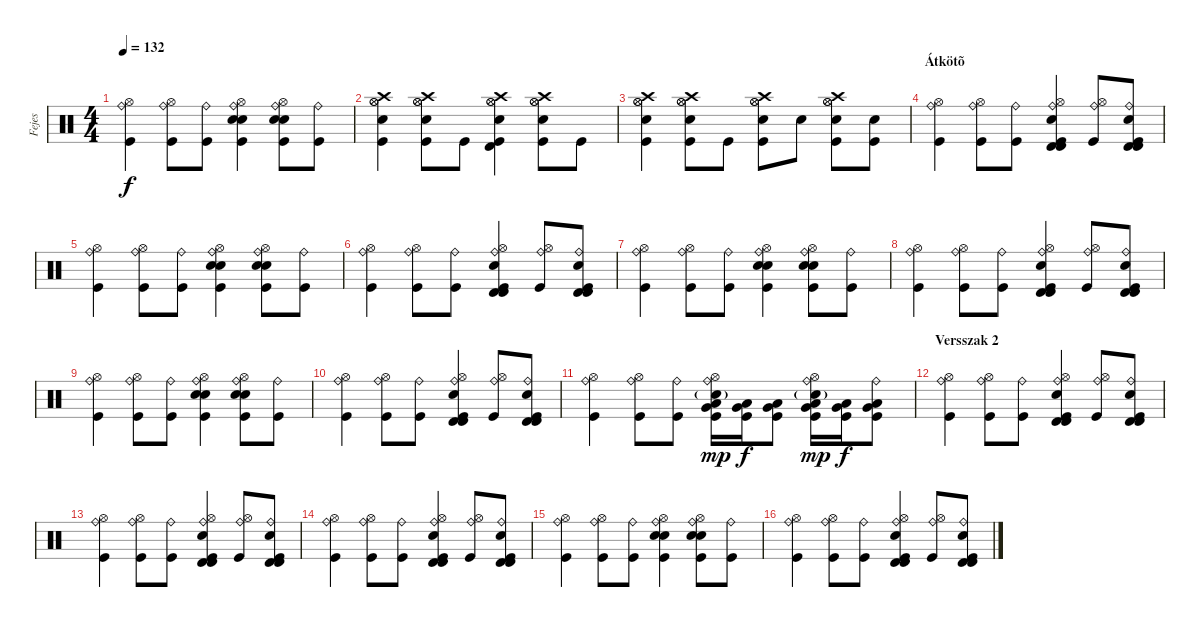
\track ("Fejes" "Fejes") {instrument percussion}
\staff {score}
\articulation defaults
\ts (4 4)
\tempo 132
\clef neutral
\ks c
("Ride (bell)" "Hi-Hat (open)" "Kick (hit)").4{dy f} ("Ride (bell)" "Hi-Hat (open)" "Kick (hit)").8 ("Ride (bell)" "Kick (hit)").8 ("Ride (bell)" "Hi-Hat (open)" "Snare (hit) 2" "Snare (hit) 2" "Kick (hit)").4 ("Ride (bell)" "Hi-Hat (open)" "Snare (hit) 2" "Snare (hit) 2" "Kick (hit)").8 ("Ride (bell)" "Kick (hit)").8 |
("Hi-Hat (open)" "Hi-Hat (open)" "Snare (hit) 2" "Crash high (hit)" "Kick (hit)").4 ("Hi-Hat (open)" "Hi-Hat (open)" "Snare (hit) 2" "Crash high (hit)" "Kick (hit)").8 "Kick (hit)".8 ("Hi-Hat (open)" "Hi-Hat (open)" "Snare (hit) 2" "Crash high (hit)" "Timbale high (hit)" "Kick (hit)").4 ("Hi-Hat (open)" "Hi-Hat (open)" "Snare (hit) 2" "Crash high (hit)" "Kick (hit)").8 "Kick (hit)".8 |
("Hi-Hat (open)" "Hi-Hat (open)" "Snare (hit) 2" "Crash high (hit)" "Kick (hit)").4 ("Hi-Hat (open)" "Hi-Hat (open)" "Snare (hit) 2" "Crash high (hit)" "Kick (hit)").8 "Kick (hit)".8 ("Hi-Hat (open)" "Hi-Hat (open)" "Snare (hit) 2" "Crash high (hit)" "Kick (hit)").8 "Snare (hit) 2".8 ("Hi-Hat (open)" "Hi-Hat (open)" "Snare (hit) 2" "Crash high (hit)" "Kick (hit)").8 ("Snare (hit) 2" "Kick (hit)").8 |
\section ("" "Átkötõ")
("Ride (bell)" "Hi-Hat (open)" "Kick (hit)").4 ("Ride (bell)" "Hi-Hat (open)" "Kick (hit)").8 ("Ride (bell)" "Kick (hit)").8 ("Ride (bell)" "Hi-Hat (open)" "Snare (hit) 2" "Timbale high (hit)" "Timbale high (hit)" "Kick (hit)").4 ("Ride (bell)" "Hi-Hat (open)" "Kick (hit)").8 ("Ride (bell)" "Snare (hit) 2" "Timbale high (hit)" "Timbale high (hit)" "Kick (hit)").8 |
("Ride (bell)" "Hi-Hat (open)" "Kick (hit)").4 ("Ride (bell)" "Hi-Hat (open)" "Kick (hit)").8 ("Ride (bell)" "Kick (hit)").8 ("Ride (bell)" "Hi-Hat (open)" "Snare (hit) 2" "Snare (hit) 2" "Kick (hit)").4 ("Ride (bell)" "Hi-Hat (open)" "Snare (hit) 2" "Snare (hit) 2" "Kick (hit)").8 ("Ride (bell)" "Kick (hit)").8 |
("Ride (bell)" "Hi-Hat (open)" "Kick (hit)").4 ("Ride (bell)" "Hi-Hat (open)" "Kick (hit)").8 ("Ride (bell)" "Kick (hit)").8 ("Ride (bell)" "Hi-Hat (open)" "Snare (hit) 2" "Timbale high (hit)" "Timbale high (hit)" "Kick (hit)").4 ("Ride (bell)" "Hi-Hat (open)" "Kick (hit)").8 ("Ride (bell)" "Snare (hit) 2" "Timbale high (hit)" "Timbale high (hit)" "Kick (hit)").8 |
("Ride (bell)" "Hi-Hat (open)" "Kick (hit)").4 ("Ride (bell)" "Hi-Hat (open)" "Kick (hit)").8 ("Ride (bell)" "Kick (hit)").8 ("Ride (bell)" "Hi-Hat (open)" "Snare (hit) 2" "Snare (hit) 2" "Kick (hit)").4 ("Ride (bell)" "Hi-Hat (open)" "Snare (hit) 2" "Snare (hit) 2" "Kick (hit)").8 ("Ride (bell)" "Kick (hit)").8 |
("Ride (bell)" "Hi-Hat (open)" "Kick (hit)").4 ("Ride (bell)" "Hi-Hat (open)" "Kick (hit)").8 ("Ride (bell)" "Kick (hit)").8 ("Ride (bell)" "Hi-Hat (open)" "Snare (hit) 2" "Timbale high (hit)" "Timbale high (hit)" "Kick (hit)").4 ("Ride (bell)" "Hi-Hat (open)" "Kick (hit)").8 ("Ride (bell)" "Snare (hit) 2" "Timbale high (hit)" "Timbale high (hit)" "Kick (hit)").8 |
("Ride (bell)" "Hi-Hat (open)" "Kick (hit)").4 ("Ride (bell)" "Hi-Hat (open)" "Kick (hit)").8 ("Ride (bell)" "Kick (hit)").8 ("Ride (bell)" "Hi-Hat (open)" "Snare (hit) 2" "Snare (hit) 2" "Kick (hit)").4 ("Ride (bell)" "Hi-Hat (open)" "Snare (hit) 2" "Snare (hit) 2" "Kick (hit)").8 ("Ride (bell)" "Kick (hit)").8 |
("Ride (bell)" "Hi-Hat (open)" "Kick (hit)").4 ("Ride (bell)" "Hi-Hat (open)" "Kick (hit)").8 ("Ride (bell)" "Kick (hit)").8 ("Ride (bell)" "Hi-Hat (open)" "Snare (hit) 2" "Timbale high (hit)" "Timbale high (hit)" "Kick (hit)").4 ("Ride (bell)" "Hi-Hat (open)" "Kick (hit)").8 ("Ride (bell)" "Snare (hit) 2" "Timbale high (hit)" "Timbale high (hit)" "Kick (hit)").8 |
("Ride (bell)" "Hi-Hat (open)" "Kick (hit)").4 ("Ride (bell)" "Hi-Hat (open)" "Kick (hit)").8 ("Ride (bell)" "Kick (hit)").8 ("Ride (bell)" "Hi-Hat (open)" "Snare (hit) 2"{g} "Low Floor Tom (hit)" "Very Low Tom (hit)" "Kick (hit)").16{dy mp} ("Low Floor Tom (hit)" "Very Low Tom (hit)" "Kick (hit)").16{dy f} ("Low Floor Tom (hit)" "Very Low Tom (hit)" "Kick (hit)").8 ("Ride (bell)" "Hi-Hat (open)" "Snare (hit) 2"{g} "Low Floor Tom (hit)" "Very Low Tom (hit)" "Kick (hit)").16{dy mp} ("Low Floor Tom (hit)" "Very Low Tom (hit)" "Kick (hit)").16{dy f} ("Ride (bell)" "Low Floor Tom (hit)" "Very Low Tom (hit)" "Kick (hit)").8 |
\section ("" "Versszak 2")
("Ride (bell)" "Hi-Hat (open)" "Kick (hit)").4 ("Ride (bell)" "Hi-Hat (open)" "Kick (hit)").8 ("Ride (bell)" "Kick (hit)").8 ("Ride (bell)" "Hi-Hat (open)" "Snare (hit) 2" "Timbale high (hit)" "Timbale high (hit)" "Kick (hit)").4 ("Ride (bell)" "Hi-Hat (open)" "Kick (hit)").8 ("Ride (bell)" "Snare (hit) 2" "Timbale high (hit)" "Timbale high (hit)" "Kick (hit)").8 |
("Ride (bell)" "Hi-Hat (open)" "Kick (hit)").4 ("Ride (bell)" "Hi-Hat (open)" "Kick (hit)").8 ("Ride (bell)" "Kick (hit)").8 ("Ride (bell)" "Hi-Hat (open)" "Snare (hit) 2" "Timbale high (hit)" "Timbale high (hit)" "Kick (hit)").4 ("Ride (bell)" "Hi-Hat (open)" "Kick (hit)").8 ("Ride (bell)" "Snare (hit) 2" "Timbale high (hit)" "Timbale high (hit)" "Kick (hit)").8 |
("Ride (bell)" "Hi-Hat (open)" "Kick (hit)").4 ("Ride (bell)" "Hi-Hat (open)" "Kick (hit)").8 ("Ride (bell)" "Kick (hit)").8 ("Ride (bell)" "Hi-Hat (open)" "Snare (hit) 2" "Timbale high (hit)" "Timbale high (hit)" "Kick (hit)").4 ("Ride (bell)" "Hi-Hat (open)" "Kick (hit)").8 ("Ride (bell)" "Snare (hit) 2" "Timbale high (hit)" "Timbale high (hit)" "Kick (hit)").8 |
("Ride (bell)" "Hi-Hat (open)" "Kick (hit)").4 ("Ride (bell)" "Hi-Hat (open)" "Kick (hit)").8 ("Ride (bell)" "Kick (hit)").8 ("Ride (bell)" "Hi-Hat (open)" "Snare (hit) 2" "Snare (hit) 2" "Kick (hit)").4 ("Ride (bell)" "Hi-Hat (open)" "Snare (hit) 2" "Snare (hit) 2" "Kick (hit)").8 ("Ride (bell)" "Kick (hit)").8 |
("Ride (bell)" "Hi-Hat (open)" "Kick (hit)").4 ("Ride (bell)" "Hi-Hat (open)" "Kick (hit)").8 ("Ride (bell)" "Kick (hit)").8 ("Ride (bell)" "Hi-Hat (open)" "Snare (hit) 2" "Timbale high (hit)" "Timbale high (hit)" "Kick (hit)").4 ("Ride (bell)" "Hi-Hat (open)" "Kick (hit)").8 ("Ride (bell)" "Snare (hit) 2" "Timbale high (hit)" "Timbale high (hit)" "Kick (hit)").8
